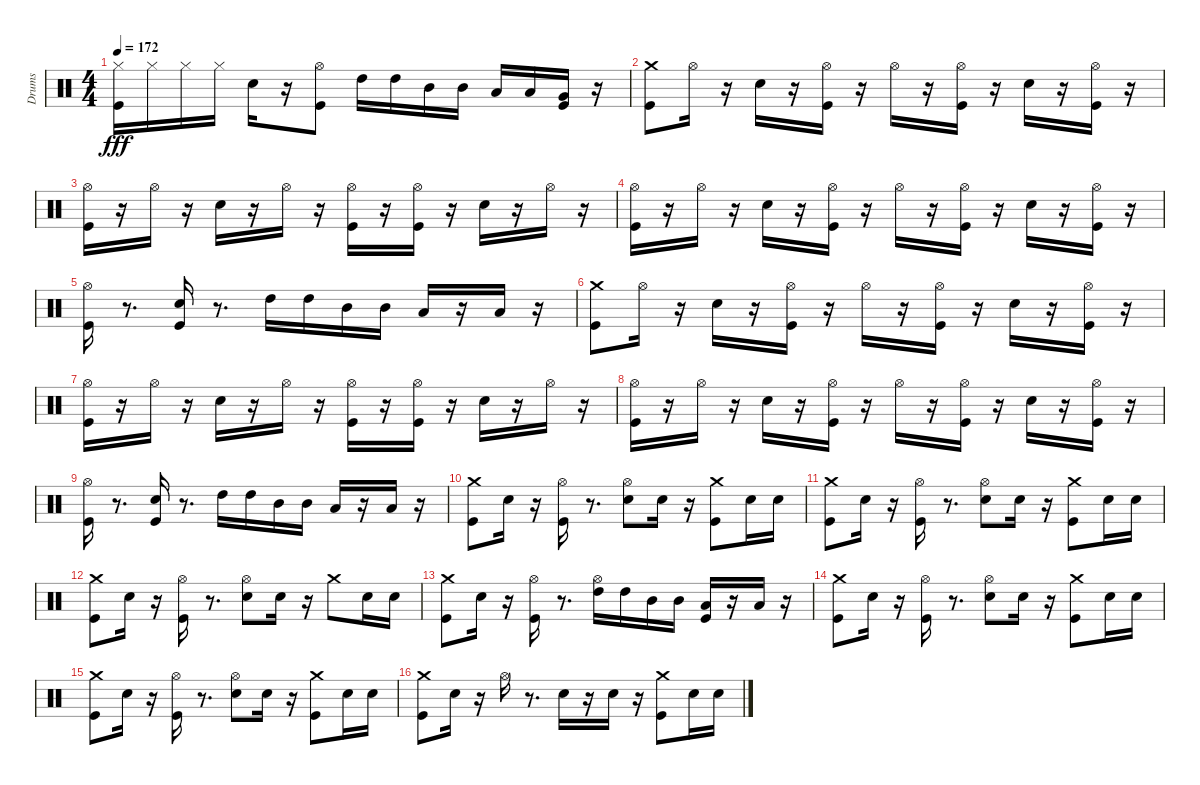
\track ("Drums" "Drums") {instrument percussion}
\staff {score}
\articulation defaults
\ts (4 4)
\tempo 172
\clef neutral
\ks c
("Hi-Hat (closed)" "Kick (hit)").16{dy fff} "Hi-Hat (closed)".16 "Hi-Hat (closed)".16 "Hi-Hat (closed)".16 "Snare (hit) 2".16 r.16 ("Hi-Hat (open)" "Kick (hit)").8 "High Tom (hit)".16 "High Tom (hit)".16 "Mid Tom (hit)".16 "Mid Tom (hit)".16 "Low Tom (hit)".16 "Low Tom (hit)".16 ("Kick (hit)" "Very Low Tom (hit)").16 r.16 |
("Crash medium (hit)" "Kick (hit)").8 "Hi-Hat (open)".16 r.16 "Snare (hit) 2".16 r.16 ("Hi-Hat (open)" "Kick (hit)").16 r.16 "Hi-Hat (open)".16 r.16 ("Hi-Hat (open)" "Kick (hit)").16 r.16 "Snare (hit) 2".16 r.16 ("Hi-Hat (open)" "Kick (hit)").16 r.16 |
("Hi-Hat (open)" "Kick (hit)").16 r.16 "Hi-Hat (open)".16 r.16 "Snare (hit) 2".16 r.16 "Hi-Hat (open)".16 r.16 ("Hi-Hat (open)" "Kick (hit)").16 r.16 ("Hi-Hat (open)" "Kick (hit)").16 r.16 "Snare (hit) 2".16 r.16 "Hi-Hat (open)".16 r.16 |
("Hi-Hat (open)" "Kick (hit)").16 r.16 "Hi-Hat (open)".16 r.16 "Snare (hit) 2".16 r.16 ("Hi-Hat (open)" "Kick (hit)").16 r.16 "Hi-Hat (open)".16 r.16 ("Hi-Hat (open)" "Kick (hit)").16 r.16 "Snare (hit) 2".16 r.16 ("Hi-Hat (open)" "Kick (hit)").16 r.16 |
("Hi-Hat (open)" "Kick (hit)").16 r.8{d} ("Kick (hit)" "Snare (hit) 2").16 r.8{d} "High Tom (hit)".16 "High Tom (hit)".16 "Mid Tom (hit)".16 "Mid Tom (hit)".16 "Low Tom (hit)".16 r.16 "Low Tom (hit)".16 r.16 |
("Crash medium (hit)" "Kick (hit)").8 "Hi-Hat (open)".16 r.16 "Snare (hit) 2".16 r.16 ("Hi-Hat (open)" "Kick (hit)").16 r.16 "Hi-Hat (open)".16 r.16 ("Hi-Hat (open)" "Kick (hit)").16 r.16 "Snare (hit) 2".16 r.16 ("Hi-Hat (open)" "Kick (hit)").16 r.16 |
("Hi-Hat (open)" "Kick (hit)").16 r.16 "Hi-Hat (open)".16 r.16 "Snare (hit) 2".16 r.16 "Hi-Hat (open)".16 r.16 ("Hi-Hat (open)" "Kick (hit)").16 r.16 ("Hi-Hat (open)" "Kick (hit)").16 r.16 "Snare (hit) 2".16 r.16 "Hi-Hat (open)".16 r.16 |
("Hi-Hat (open)" "Kick (hit)").16 r.16 "Hi-Hat (open)".16 r.16 "Snare (hit) 2".16 r.16 ("Hi-Hat (open)" "Kick (hit)").16 r.16 "Hi-Hat (open)".16 r.16 ("Hi-Hat (open)" "Kick (hit)").16 r.16 "Snare (hit) 2".16 r.16 ("Hi-Hat (open)" "Kick (hit)").16 r.16 |
("Hi-Hat (open)" "Kick (hit)").16 r.8{d} ("Kick (hit)" "Snare (hit) 2").16 r.8{d} "High Tom (hit)".16 "High Tom (hit)".16 "Mid Tom (hit)".16 "Mid Tom (hit)".16 "Low Tom (hit)".16 r.16 "Low Tom (hit)".16 r.16 |
("Crash medium (hit)" "Kick (hit)").8 "Snare (hit) 2".16 r.16 ("Hi-Hat (open)" "Kick (hit)").16 r.8{d} ("Hi-Hat (open)" "Snare (hit) 2").8 "Snare (hit) 2".16 r.16 ("Crash medium (hit)" "Kick (hit)").8 "Snare (hit) 2".16 "Snare (hit) 2".16 |
("Crash medium (hit)" "Kick (hit)").8 "Snare (hit) 2".16 r.16 ("Hi-Hat (open)" "Kick (hit)").16 r.8{d} ("Hi-Hat (open)" "Snare (hit) 2").8 "Snare (hit) 2".16 r.16 ("Crash medium (hit)" "Kick (hit)").8 "Snare (hit) 2".16 "Snare (hit) 2".16 |
("Crash medium (hit)" "Kick (hit)").8 "Snare (hit) 2".16 r.16 ("Hi-Hat (open)" "Kick (hit)").16 r.8{d} ("Hi-Hat (open)" "Snare (hit) 2").8 "Snare (hit) 2".16 r.16 "Crash medium (hit)".8 "Snare (hit) 2".16 "Snare (hit) 2".16 |
("Crash medium (hit)" "Kick (hit)").8 "Snare (hit) 2".16 r.16 ("Hi-Hat (open)" "Kick (hit)").16 r.8{d} ("Hi-Hat (open)" "High Tom (hit)").16 "High Tom (hit)".16 "Mid Tom (hit)".16 "Mid Tom (hit)".16 ("Kick (hit)" "Low Tom (hit)").16 r.16 "Low Tom (hit)".16 r.16 |
("Crash medium (hit)" "Kick (hit)").8 "Snare (hit) 2".16 r.16 ("Hi-Hat (open)" "Kick (hit)").16 r.8{d} ("Hi-Hat (open)" "Snare (hit) 2").8 "Snare (hit) 2".16 r.16 ("Crash medium (hit)" "Kick (hit)").8 "Snare (hit) 2".16 "Snare (hit) 2".16 |
("Crash medium (hit)" "Kick (hit)").8 "Snare (hit) 2".16 r.16 ("Hi-Hat (open)" "Kick (hit)").16 r.8{d} ("Hi-Hat (open)" "Snare (hit) 2").8 "Snare (hit) 2".16 r.16 ("Crash medium (hit)" "Kick (hit)").8 "Snare (hit) 2".16 "Snare (hit) 2".16 |
("Crash medium (hit)" "Kick (hit)").8 "Snare (hit) 2".16 r.16 "Hi-Hat (open)".16 r.8{d} "Snare (hit) 2".16 r.16 "Snare (hit) 2".16 r.16 ("Crash medium (hit)" "Kick (hit)").8 "Snare (hit) 2".16 "Snare (hit) 2".16
